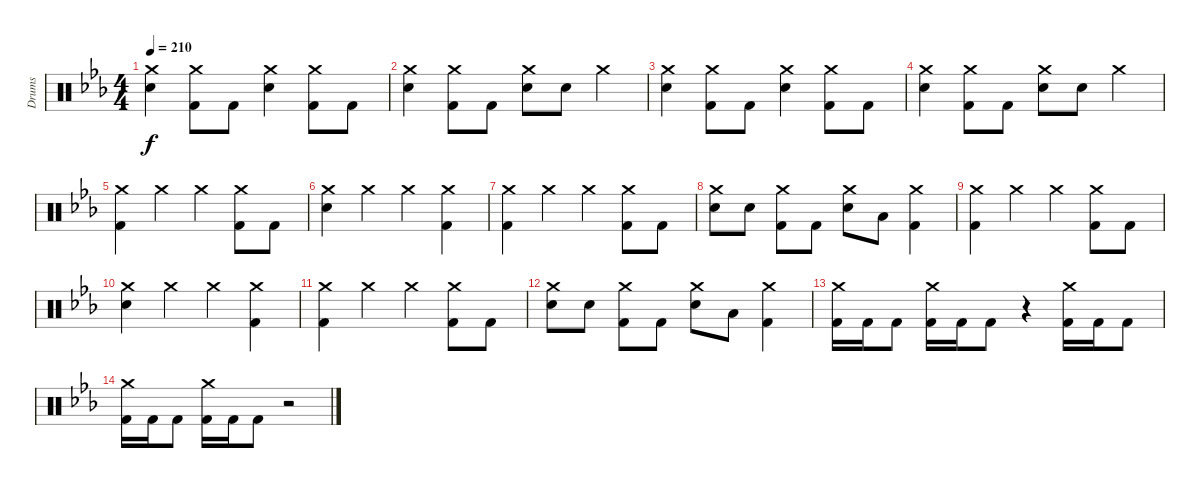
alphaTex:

\track ("Drums" "Drums") {instrument percussion}
\staff {score}
\articulation defaults
\ts (4 4)
\tempo 210
\clef neutral
\ks cminor
("Crash medium (hit)" "Electric Snare (hit)").4{dy f} ("Crash medium (hit)" "Kick (hit) 2").8 "Kick (hit) 2".8 ("Crash medium (hit)" "Electric Snare (hit)").4 ("Crash medium (hit)" "Kick (hit) 2").8 "Kick (hit) 2".8 |
("Crash medium (hit)" "Electric Snare (hit)").4 ("Crash medium (hit)" "Kick (hit) 2").8 "Kick (hit) 2".8 ("Crash medium (hit)" "Electric Snare (hit)").8 "Electric Snare (hit)".8 "Crash medium (hit)".4 |
("Crash medium (hit)" "Electric Snare (hit)").4 ("Crash medium (hit)" "Kick (hit) 2").8 "Kick (hit) 2".8 ("Crash medium (hit)" "Electric Snare (hit)").4 ("Crash medium (hit)" "Kick (hit) 2").8 "Kick (hit) 2".8 |
("Crash medium (hit)" "Electric Snare (hit)").4 ("Crash medium (hit)" "Kick (hit) 2").8 "Kick (hit) 2".8 ("Crash medium (hit)" "Electric Snare (hit)").8 "Electric Snare (hit)".8 "Crash medium (hit)".4 |
("Crash medium (hit)" "Kick (hit) 2").4 "Crash medium (hit)".4 "Crash medium (hit)".4 ("Crash medium (hit)" "Kick (hit) 2").8 "Kick (hit) 2".8 |
("Crash medium (hit)" "Electric Snare (hit)").4 "Crash medium (hit)".4 "Crash medium (hit)".4 ("Crash medium (hit)" "Kick (hit) 2").4 |
("Crash medium (hit)" "Kick (hit) 2").4 "Crash medium (hit)".4 "Crash medium (hit)".4 ("Crash medium (hit)" "Kick (hit) 2").8 "Kick (hit) 2".8 |
("Crash medium (hit)" "Electric Snare (hit)").8 "Electric Snare (hit)".8 ("Crash medium (hit)" "Kick (hit) 2").8 "Kick (hit) 2".8 ("Crash medium (hit)" "Electric Snare (hit)").8 "Low Tom (hit)".8 ("Crash medium (hit)" "Kick (hit) 2").4 |
("Crash medium (hit)" "Kick (hit) 2").4 "Crash medium (hit)".4 "Crash medium (hit)".4 ("Crash medium (hit)" "Kick (hit) 2").8 "Kick (hit) 2".8 |
("Crash medium (hit)" "Electric Snare (hit)").4 "Crash medium (hit)".4 "Crash medium (hit)".4 ("Crash medium (hit)" "Kick (hit) 2").4 |
("Crash medium (hit)" "Kick (hit) 2").4 "Crash medium (hit)".4 "Crash medium (hit)".4 ("Crash medium (hit)" "Kick (hit) 2").8 "Kick (hit) 2".8 |
("Crash medium (hit)" "Electric Snare (hit)").8 "Electric Snare (hit)".8 ("Crash medium (hit)" "Kick (hit) 2").8 "Kick (hit) 2".8 ("Crash medium (hit)" "Electric Snare (hit)").8 "Low Tom (hit)".8 ("Crash medium (hit)" "Kick (hit) 2").4 |
("Crash medium (hit)" "Kick (hit) 2").16 "Kick (hit) 2".16 "Kick (hit) 2".8 ("Crash medium (hit)" "Kick (hit) 2").16 "Kick (hit) 2".16 "Kick (hit) 2".8 r.4 ("Crash medium (hit)" "Kick (hit) 2").16 "Kick (hit) 2".16 "Kick (hit) 2".8 |
("Crash medium (hit)" "Kick (hit) 2").16 "Kick (hit) 2".16 "Kick (hit) 2".8 ("Crash medium (hit)" "Kick (hit) 2").16 "Kick (hit) 2".16 "Kick (hit) 2".8 r.2
